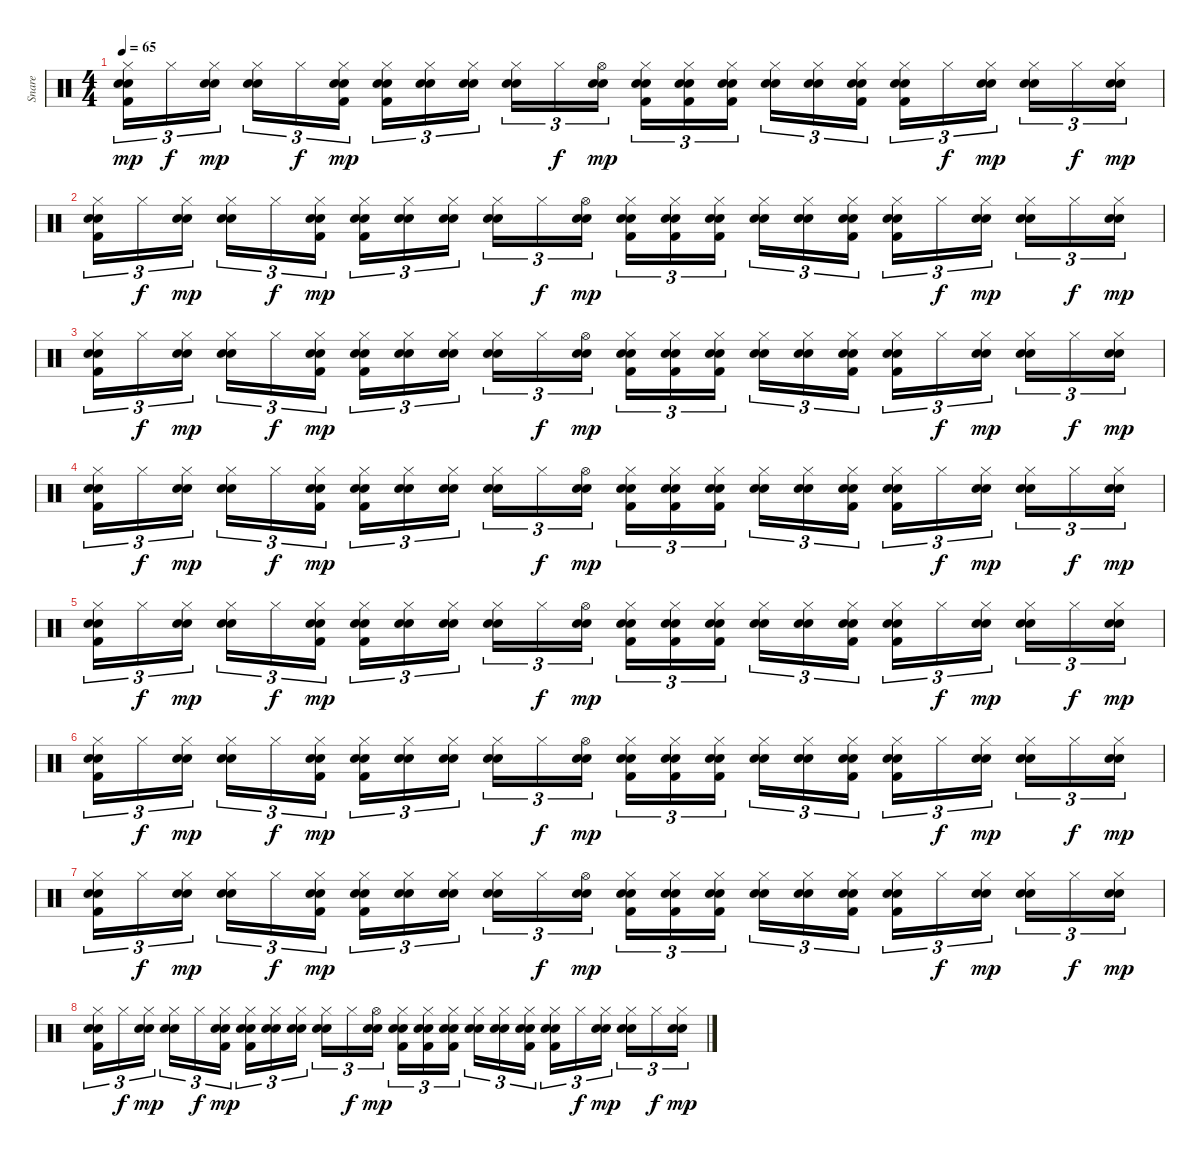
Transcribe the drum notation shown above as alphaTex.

\track ("Snare" "Snare") {instrument percussion}
\staff {score}
\articulation defaults
\ts (4 4)
\tempo 65
\clef neutral
\ks c
("Hi-Hat (closed)" "Snare (hit) 2" "Electric Snare (hit)" "Kick (hit) 2").16{tu (3 2) dy mp} "Hi-Hat (closed)".16{tu (3 2) dy f} ("Hi-Hat (closed)" "Snare (hit) 2" "Electric Snare (hit)").16{tu (3 2) dy mp} ("Hi-Hat (closed)" "Snare (hit) 2" "Electric Snare (hit)").16{tu (3 2)} "Hi-Hat (closed)".16{tu (3 2) dy f} ("Hi-Hat (closed)" "Snare (hit) 2" "Electric Snare (hit)" "Kick (hit) 2").16{tu (3 2) dy mp} ("Hi-Hat (closed)" "Snare (hit) 2" "Electric Snare (hit)" "Kick (hit) 2").16{tu (3 2)} ("Hi-Hat (closed)" "Snare (hit) 2" "Electric Snare (hit)").16{tu (3 2)} ("Hi-Hat (closed)" "Snare (hit) 2" "Electric Snare (hit)").16{tu (3 2)} ("Hi-Hat (closed)" "Snare (hit) 2" "Electric Snare (hit)").16{tu (3 2)} "Hi-Hat (closed)".16{tu (3 2) dy f} ("Hi-Hat (open)" "Snare (hit) 2" "Electric Snare (hit)").16{tu (3 2) dy mp} ("Hi-Hat (closed)" "Snare (hit) 2" "Electric Snare (hit)" "Kick (hit) 2").16{tu (3 2)} ("Hi-Hat (closed)" "Snare (hit) 2" "Electric Snare (hit)" "Kick (hit) 2").16{tu (3 2)} ("Hi-Hat (closed)" "Snare (hit) 2" "Electric Snare (hit)" "Kick (hit) 2").16{tu (3 2)} ("Hi-Hat (closed)" "Snare (hit) 2" "Electric Snare (hit)").16{tu (3 2)} ("Hi-Hat (closed)" "Snare (hit) 2" "Electric Snare (hit)").16{tu (3 2)} ("Hi-Hat (closed)" "Snare (hit) 2" "Electric Snare (hit)" "Kick (hit) 2").16{tu (3 2)} ("Hi-Hat (closed)" "Snare (hit) 2" "Electric Snare (hit)" "Kick (hit) 2").16{tu (3 2)} "Hi-Hat (closed)".16{tu (3 2) dy f} ("Hi-Hat (closed)" "Snare (hit) 2" "Electric Snare (hit)").16{tu (3 2) dy mp} ("Hi-Hat (closed)" "Snare (hit) 2" "Electric Snare (hit)").16{tu (3 2)} "Hi-Hat (closed)".16{tu (3 2) dy f} ("Hi-Hat (closed)" "Snare (hit) 2" "Electric Snare (hit)").16{tu (3 2) dy mp} |
("Hi-Hat (closed)" "Snare (hit) 2" "Electric Snare (hit)" "Kick (hit) 2").16{tu (3 2)} "Hi-Hat (closed)".16{tu (3 2) dy f} ("Hi-Hat (closed)" "Snare (hit) 2" "Electric Snare (hit)").16{tu (3 2) dy mp} ("Hi-Hat (closed)" "Snare (hit) 2" "Electric Snare (hit)").16{tu (3 2)} "Hi-Hat (closed)".16{tu (3 2) dy f} ("Hi-Hat (closed)" "Snare (hit) 2" "Electric Snare (hit)" "Kick (hit) 2").16{tu (3 2) dy mp} ("Hi-Hat (closed)" "Snare (hit) 2" "Electric Snare (hit)" "Kick (hit) 2").16{tu (3 2)} ("Hi-Hat (closed)" "Snare (hit) 2" "Electric Snare (hit)").16{tu (3 2)} ("Hi-Hat (closed)" "Snare (hit) 2" "Electric Snare (hit)").16{tu (3 2)} ("Hi-Hat (closed)" "Snare (hit) 2" "Electric Snare (hit)").16{tu (3 2)} "Hi-Hat (closed)".16{tu (3 2) dy f} ("Hi-Hat (open)" "Snare (hit) 2" "Electric Snare (hit)").16{tu (3 2) dy mp} ("Hi-Hat (closed)" "Snare (hit) 2" "Electric Snare (hit)" "Kick (hit) 2").16{tu (3 2)} ("Hi-Hat (closed)" "Snare (hit) 2" "Electric Snare (hit)" "Kick (hit) 2").16{tu (3 2)} ("Hi-Hat (closed)" "Snare (hit) 2" "Electric Snare (hit)" "Kick (hit) 2").16{tu (3 2)} ("Hi-Hat (closed)" "Snare (hit) 2" "Electric Snare (hit)").16{tu (3 2)} ("Hi-Hat (closed)" "Snare (hit) 2" "Electric Snare (hit)").16{tu (3 2)} ("Hi-Hat (closed)" "Snare (hit) 2" "Electric Snare (hit)" "Kick (hit) 2").16{tu (3 2)} ("Hi-Hat (closed)" "Snare (hit) 2" "Electric Snare (hit)" "Kick (hit) 2").16{tu (3 2)} "Hi-Hat (closed)".16{tu (3 2) dy f} ("Hi-Hat (closed)" "Snare (hit) 2" "Electric Snare (hit)").16{tu (3 2) dy mp} ("Hi-Hat (closed)" "Snare (hit) 2" "Electric Snare (hit)").16{tu (3 2)} "Hi-Hat (closed)".16{tu (3 2) dy f} ("Hi-Hat (closed)" "Snare (hit) 2" "Electric Snare (hit)").16{tu (3 2) dy mp} |
("Hi-Hat (closed)" "Snare (hit) 2" "Electric Snare (hit)" "Kick (hit) 2").16{tu (3 2)} "Hi-Hat (closed)".16{tu (3 2) dy f} ("Hi-Hat (closed)" "Snare (hit) 2" "Electric Snare (hit)").16{tu (3 2) dy mp} ("Hi-Hat (closed)" "Snare (hit) 2" "Electric Snare (hit)").16{tu (3 2)} "Hi-Hat (closed)".16{tu (3 2) dy f} ("Hi-Hat (closed)" "Snare (hit) 2" "Electric Snare (hit)" "Kick (hit) 2").16{tu (3 2) dy mp} ("Hi-Hat (closed)" "Snare (hit) 2" "Electric Snare (hit)" "Kick (hit) 2").16{tu (3 2)} ("Hi-Hat (closed)" "Snare (hit) 2" "Electric Snare (hit)").16{tu (3 2)} ("Hi-Hat (closed)" "Snare (hit) 2" "Electric Snare (hit)").16{tu (3 2)} ("Hi-Hat (closed)" "Snare (hit) 2" "Electric Snare (hit)").16{tu (3 2)} "Hi-Hat (closed)".16{tu (3 2) dy f} ("Hi-Hat (open)" "Snare (hit) 2" "Electric Snare (hit)").16{tu (3 2) dy mp} ("Hi-Hat (closed)" "Snare (hit) 2" "Electric Snare (hit)" "Kick (hit) 2").16{tu (3 2)} ("Hi-Hat (closed)" "Snare (hit) 2" "Electric Snare (hit)" "Kick (hit) 2").16{tu (3 2)} ("Hi-Hat (closed)" "Snare (hit) 2" "Electric Snare (hit)" "Kick (hit) 2").16{tu (3 2)} ("Hi-Hat (closed)" "Snare (hit) 2" "Electric Snare (hit)").16{tu (3 2)} ("Hi-Hat (closed)" "Snare (hit) 2" "Electric Snare (hit)").16{tu (3 2)} ("Hi-Hat (closed)" "Snare (hit) 2" "Electric Snare (hit)" "Kick (hit) 2").16{tu (3 2)} ("Hi-Hat (closed)" "Snare (hit) 2" "Electric Snare (hit)" "Kick (hit) 2").16{tu (3 2)} "Hi-Hat (closed)".16{tu (3 2) dy f} ("Hi-Hat (closed)" "Snare (hit) 2" "Electric Snare (hit)").16{tu (3 2) dy mp} ("Hi-Hat (closed)" "Snare (hit) 2" "Electric Snare (hit)").16{tu (3 2)} "Hi-Hat (closed)".16{tu (3 2) dy f} ("Hi-Hat (closed)" "Snare (hit) 2" "Electric Snare (hit)").16{tu (3 2) dy mp} |
("Hi-Hat (closed)" "Snare (hit) 2" "Electric Snare (hit)" "Kick (hit) 2").16{tu (3 2)} "Hi-Hat (closed)".16{tu (3 2) dy f} ("Hi-Hat (closed)" "Snare (hit) 2" "Electric Snare (hit)").16{tu (3 2) dy mp} ("Hi-Hat (closed)" "Snare (hit) 2" "Electric Snare (hit)").16{tu (3 2)} "Hi-Hat (closed)".16{tu (3 2) dy f} ("Hi-Hat (closed)" "Snare (hit) 2" "Electric Snare (hit)" "Kick (hit) 2").16{tu (3 2) dy mp} ("Hi-Hat (closed)" "Snare (hit) 2" "Electric Snare (hit)" "Kick (hit) 2").16{tu (3 2)} ("Hi-Hat (closed)" "Snare (hit) 2" "Electric Snare (hit)").16{tu (3 2)} ("Hi-Hat (closed)" "Snare (hit) 2" "Electric Snare (hit)").16{tu (3 2)} ("Hi-Hat (closed)" "Snare (hit) 2" "Electric Snare (hit)").16{tu (3 2)} "Hi-Hat (closed)".16{tu (3 2) dy f} ("Hi-Hat (open)" "Snare (hit) 2" "Electric Snare (hit)").16{tu (3 2) dy mp} ("Hi-Hat (closed)" "Snare (hit) 2" "Electric Snare (hit)" "Kick (hit) 2").16{tu (3 2)} ("Hi-Hat (closed)" "Snare (hit) 2" "Electric Snare (hit)" "Kick (hit) 2").16{tu (3 2)} ("Hi-Hat (closed)" "Snare (hit) 2" "Electric Snare (hit)" "Kick (hit) 2").16{tu (3 2)} ("Hi-Hat (closed)" "Snare (hit) 2" "Electric Snare (hit)").16{tu (3 2)} ("Hi-Hat (closed)" "Snare (hit) 2" "Electric Snare (hit)").16{tu (3 2)} ("Hi-Hat (closed)" "Snare (hit) 2" "Electric Snare (hit)" "Kick (hit) 2").16{tu (3 2)} ("Hi-Hat (closed)" "Snare (hit) 2" "Electric Snare (hit)" "Kick (hit) 2").16{tu (3 2)} "Hi-Hat (closed)".16{tu (3 2) dy f} ("Hi-Hat (closed)" "Snare (hit) 2" "Electric Snare (hit)").16{tu (3 2) dy mp} ("Hi-Hat (closed)" "Snare (hit) 2" "Electric Snare (hit)").16{tu (3 2)} "Hi-Hat (closed)".16{tu (3 2) dy f} ("Hi-Hat (closed)" "Snare (hit) 2" "Electric Snare (hit)").16{tu (3 2) dy mp} |
("Hi-Hat (closed)" "Snare (hit) 2" "Electric Snare (hit)" "Kick (hit) 2").16{tu (3 2)} "Hi-Hat (closed)".16{tu (3 2) dy f} ("Hi-Hat (closed)" "Snare (hit) 2" "Electric Snare (hit)").16{tu (3 2) dy mp} ("Hi-Hat (closed)" "Snare (hit) 2" "Electric Snare (hit)").16{tu (3 2)} "Hi-Hat (closed)".16{tu (3 2) dy f} ("Hi-Hat (closed)" "Snare (hit) 2" "Electric Snare (hit)" "Kick (hit) 2").16{tu (3 2) dy mp} ("Hi-Hat (closed)" "Snare (hit) 2" "Electric Snare (hit)" "Kick (hit) 2").16{tu (3 2)} ("Hi-Hat (closed)" "Snare (hit) 2" "Electric Snare (hit)").16{tu (3 2)} ("Hi-Hat (closed)" "Snare (hit) 2" "Electric Snare (hit)").16{tu (3 2)} ("Hi-Hat (closed)" "Snare (hit) 2" "Electric Snare (hit)").16{tu (3 2)} "Hi-Hat (closed)".16{tu (3 2) dy f} ("Hi-Hat (open)" "Snare (hit) 2" "Electric Snare (hit)").16{tu (3 2) dy mp} ("Hi-Hat (closed)" "Snare (hit) 2" "Electric Snare (hit)" "Kick (hit) 2").16{tu (3 2)} ("Hi-Hat (closed)" "Snare (hit) 2" "Electric Snare (hit)" "Kick (hit) 2").16{tu (3 2)} ("Hi-Hat (closed)" "Snare (hit) 2" "Electric Snare (hit)" "Kick (hit) 2").16{tu (3 2)} ("Hi-Hat (closed)" "Snare (hit) 2" "Electric Snare (hit)").16{tu (3 2)} ("Hi-Hat (closed)" "Snare (hit) 2" "Electric Snare (hit)").16{tu (3 2)} ("Hi-Hat (closed)" "Snare (hit) 2" "Electric Snare (hit)" "Kick (hit) 2").16{tu (3 2)} ("Hi-Hat (closed)" "Snare (hit) 2" "Electric Snare (hit)" "Kick (hit) 2").16{tu (3 2)} "Hi-Hat (closed)".16{tu (3 2) dy f} ("Hi-Hat (closed)" "Snare (hit) 2" "Electric Snare (hit)").16{tu (3 2) dy mp} ("Hi-Hat (closed)" "Snare (hit) 2" "Electric Snare (hit)").16{tu (3 2)} "Hi-Hat (closed)".16{tu (3 2) dy f} ("Hi-Hat (closed)" "Snare (hit) 2" "Electric Snare (hit)").16{tu (3 2) dy mp} |
("Hi-Hat (closed)" "Snare (hit) 2" "Electric Snare (hit)" "Kick (hit) 2").16{tu (3 2)} "Hi-Hat (closed)".16{tu (3 2) dy f} ("Hi-Hat (closed)" "Snare (hit) 2" "Electric Snare (hit)").16{tu (3 2) dy mp} ("Hi-Hat (closed)" "Snare (hit) 2" "Electric Snare (hit)").16{tu (3 2)} "Hi-Hat (closed)".16{tu (3 2) dy f} ("Hi-Hat (closed)" "Snare (hit) 2" "Electric Snare (hit)" "Kick (hit) 2").16{tu (3 2) dy mp} ("Hi-Hat (closed)" "Snare (hit) 2" "Electric Snare (hit)" "Kick (hit) 2").16{tu (3 2)} ("Hi-Hat (closed)" "Snare (hit) 2" "Electric Snare (hit)").16{tu (3 2)} ("Hi-Hat (closed)" "Snare (hit) 2" "Electric Snare (hit)").16{tu (3 2)} ("Hi-Hat (closed)" "Snare (hit) 2" "Electric Snare (hit)").16{tu (3 2)} "Hi-Hat (closed)".16{tu (3 2) dy f} ("Hi-Hat (open)" "Snare (hit) 2" "Electric Snare (hit)").16{tu (3 2) dy mp} ("Hi-Hat (closed)" "Snare (hit) 2" "Electric Snare (hit)" "Kick (hit) 2").16{tu (3 2)} ("Hi-Hat (closed)" "Snare (hit) 2" "Electric Snare (hit)" "Kick (hit) 2").16{tu (3 2)} ("Hi-Hat (closed)" "Snare (hit) 2" "Electric Snare (hit)" "Kick (hit) 2").16{tu (3 2)} ("Hi-Hat (closed)" "Snare (hit) 2" "Electric Snare (hit)").16{tu (3 2)} ("Hi-Hat (closed)" "Snare (hit) 2" "Electric Snare (hit)").16{tu (3 2)} ("Hi-Hat (closed)" "Snare (hit) 2" "Electric Snare (hit)" "Kick (hit) 2").16{tu (3 2)} ("Hi-Hat (closed)" "Snare (hit) 2" "Electric Snare (hit)" "Kick (hit) 2").16{tu (3 2)} "Hi-Hat (closed)".16{tu (3 2) dy f} ("Hi-Hat (closed)" "Snare (hit) 2" "Electric Snare (hit)").16{tu (3 2) dy mp} ("Hi-Hat (closed)" "Snare (hit) 2" "Electric Snare (hit)").16{tu (3 2)} "Hi-Hat (closed)".16{tu (3 2) dy f} ("Hi-Hat (closed)" "Snare (hit) 2" "Electric Snare (hit)").16{tu (3 2) dy mp} |
("Hi-Hat (closed)" "Snare (hit) 2" "Electric Snare (hit)" "Kick (hit) 2").16{tu (3 2)} "Hi-Hat (closed)".16{tu (3 2) dy f} ("Hi-Hat (closed)" "Snare (hit) 2" "Electric Snare (hit)").16{tu (3 2) dy mp} ("Hi-Hat (closed)" "Snare (hit) 2" "Electric Snare (hit)").16{tu (3 2)} "Hi-Hat (closed)".16{tu (3 2) dy f} ("Hi-Hat (closed)" "Snare (hit) 2" "Electric Snare (hit)" "Kick (hit) 2").16{tu (3 2) dy mp} ("Hi-Hat (closed)" "Snare (hit) 2" "Electric Snare (hit)" "Kick (hit) 2").16{tu (3 2)} ("Hi-Hat (closed)" "Snare (hit) 2" "Electric Snare (hit)").16{tu (3 2)} ("Hi-Hat (closed)" "Snare (hit) 2" "Electric Snare (hit)").16{tu (3 2)} ("Hi-Hat (closed)" "Snare (hit) 2" "Electric Snare (hit)").16{tu (3 2)} "Hi-Hat (closed)".16{tu (3 2) dy f} ("Hi-Hat (open)" "Snare (hit) 2" "Electric Snare (hit)").16{tu (3 2) dy mp} ("Hi-Hat (closed)" "Snare (hit) 2" "Electric Snare (hit)" "Kick (hit) 2").16{tu (3 2)} ("Hi-Hat (closed)" "Snare (hit) 2" "Electric Snare (hit)" "Kick (hit) 2").16{tu (3 2)} ("Hi-Hat (closed)" "Snare (hit) 2" "Electric Snare (hit)" "Kick (hit) 2").16{tu (3 2)} ("Hi-Hat (closed)" "Snare (hit) 2" "Electric Snare (hit)").16{tu (3 2)} ("Hi-Hat (closed)" "Snare (hit) 2" "Electric Snare (hit)").16{tu (3 2)} ("Hi-Hat (closed)" "Snare (hit) 2" "Electric Snare (hit)" "Kick (hit) 2").16{tu (3 2)} ("Hi-Hat (closed)" "Snare (hit) 2" "Electric Snare (hit)" "Kick (hit) 2").16{tu (3 2)} "Hi-Hat (closed)".16{tu (3 2) dy f} ("Hi-Hat (closed)" "Snare (hit) 2" "Electric Snare (hit)").16{tu (3 2) dy mp} ("Hi-Hat (closed)" "Snare (hit) 2" "Electric Snare (hit)").16{tu (3 2)} "Hi-Hat (closed)".16{tu (3 2) dy f} ("Hi-Hat (closed)" "Snare (hit) 2" "Electric Snare (hit)").16{tu (3 2) dy mp} |
("Hi-Hat (closed)" "Snare (hit) 2" "Electric Snare (hit)" "Kick (hit) 2").16{tu (3 2)} "Hi-Hat (closed)".16{tu (3 2) dy f} ("Hi-Hat (closed)" "Snare (hit) 2" "Electric Snare (hit)").16{tu (3 2) dy mp} ("Hi-Hat (closed)" "Snare (hit) 2" "Electric Snare (hit)").16{tu (3 2)} "Hi-Hat (closed)".16{tu (3 2) dy f} ("Hi-Hat (closed)" "Snare (hit) 2" "Electric Snare (hit)" "Kick (hit) 2").16{tu (3 2) dy mp} ("Hi-Hat (closed)" "Snare (hit) 2" "Electric Snare (hit)" "Kick (hit) 2").16{tu (3 2)} ("Hi-Hat (closed)" "Snare (hit) 2" "Electric Snare (hit)").16{tu (3 2)} ("Hi-Hat (closed)" "Snare (hit) 2" "Electric Snare (hit)").16{tu (3 2)} ("Hi-Hat (closed)" "Snare (hit) 2" "Electric Snare (hit)").16{tu (3 2)} "Hi-Hat (closed)".16{tu (3 2) dy f} ("Hi-Hat (open)" "Snare (hit) 2" "Electric Snare (hit)").16{tu (3 2) dy mp} ("Hi-Hat (closed)" "Snare (hit) 2" "Electric Snare (hit)" "Kick (hit) 2").16{tu (3 2)} ("Hi-Hat (closed)" "Snare (hit) 2" "Electric Snare (hit)" "Kick (hit) 2").16{tu (3 2)} ("Hi-Hat (closed)" "Snare (hit) 2" "Electric Snare (hit)" "Kick (hit) 2").16{tu (3 2)} ("Hi-Hat (closed)" "Snare (hit) 2" "Electric Snare (hit)").16{tu (3 2)} ("Hi-Hat (closed)" "Snare (hit) 2" "Electric Snare (hit)").16{tu (3 2)} ("Hi-Hat (closed)" "Snare (hit) 2" "Electric Snare (hit)" "Kick (hit) 2").16{tu (3 2)} ("Hi-Hat (closed)" "Snare (hit) 2" "Electric Snare (hit)" "Kick (hit) 2").16{tu (3 2)} "Hi-Hat (closed)".16{tu (3 2) dy f} ("Hi-Hat (closed)" "Snare (hit) 2" "Electric Snare (hit)").16{tu (3 2) dy mp} ("Hi-Hat (closed)" "Snare (hit) 2" "Electric Snare (hit)").16{tu (3 2)} "Hi-Hat (closed)".16{tu (3 2) dy f} ("Hi-Hat (closed)" "Snare (hit) 2" "Electric Snare (hit)").16{tu (3 2) dy mp}
